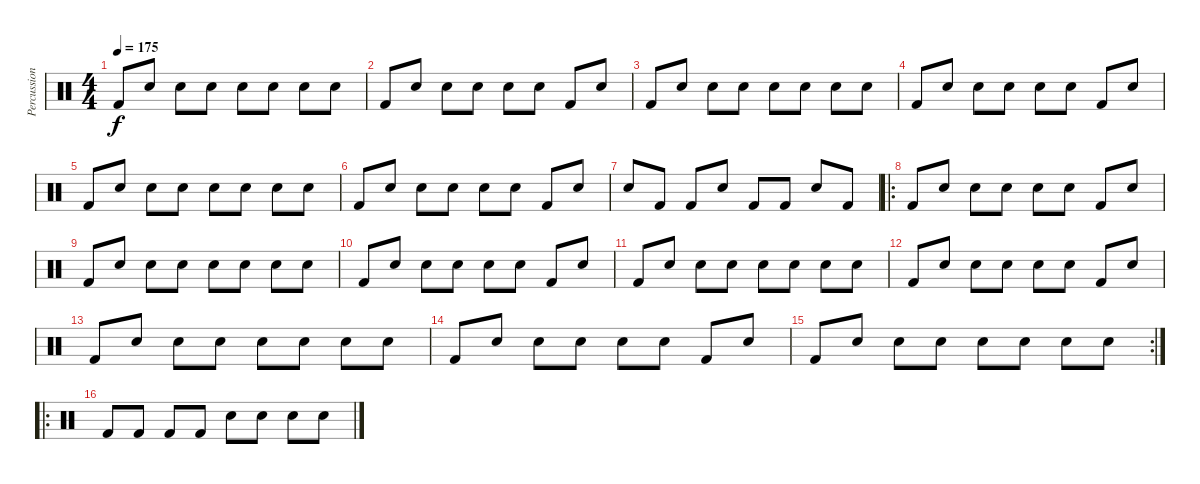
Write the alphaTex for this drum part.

\track ("Percussion" "Percussion") {instrument percussion}
\staff {score}
\articulation defaults
\ts (4 4)
\tempo 175
\clef neutral
\ks c "Kick (hit) 2".8{dy f} "Snare (hit)".8 "Snare (hit)".8 "Snare (hit)".8 "Electric Snare (hit)".8 "Snare (hit)".8 "Snare (hit)".8 "Snare (hit)".8
|
"Kick (hit) 2".8 "Snare (hit)".8 "Snare (hit)".8 "Snare (hit)".8 "Electric Snare (hit)".8 "Snare (hit)".8 "Kick (hit) 2".8 "Electric Snare (hit)".8 |
"Kick (hit) 2".8 "Snare (hit)".8 "Snare (hit)".8 "Snare (hit)".8 "Electric Snare (hit)".8 "Snare (hit)".8 "Snare (hit)".8 "Snare (hit)".8 |
"Kick (hit) 2".8 "Snare (hit)".8 "Snare (hit)".8 "Snare (hit)".8 "Electric Snare (hit)".8 "Snare (hit)".8 "Kick (hit) 2".8 "Electric Snare (hit)".8 |
"Kick (hit) 2".8 "Snare (hit)".8 "Snare (hit)".8 "Snare (hit)".8 "Electric Snare (hit)".8 "Snare (hit)".8 "Snare (hit)".8 "Snare (hit)".8 |
"Kick (hit) 2".8 "Snare (hit)".8 "Snare (hit)".8 "Snare (hit)".8 "Electric Snare (hit)".8 "Snare (hit)".8 "Kick (hit) 2".8 "Electric Snare (hit)".8 |
"Electric Snare (hit)".8 "Kick (hit) 2".8 "Kick (hit) 2".8 "Electric Snare (hit)".8 "Kick (hit) 2".8 "Kick (hit) 2".8 "Electric Snare (hit)".8 "Kick (hit) 2".8 |
\ro "Kick (hit) 2".8 "Snare (hit)".8 "Snare (hit)".8 "Snare (hit)".8 "Electric Snare (hit)".8 "Snare (hit)".8 "Kick (hit) 2".8 "Electric Snare (hit)".8
|
"Kick (hit) 2".8 "Snare (hit)".8 "Snare (hit)".8 "Snare (hit)".8 "Electric Snare (hit)".8 "Snare (hit)".8 "Snare (hit)".8 "Snare (hit)".8 |
"Kick (hit) 2".8 "Snare (hit)".8 "Snare (hit)".8 "Snare (hit)".8 "Electric Snare (hit)".8 "Snare (hit)".8 "Kick (hit) 2".8 "Electric Snare (hit)".8 |
"Kick (hit) 2".8 "Snare (hit)".8 "Snare (hit)".8 "Snare (hit)".8 "Electric Snare (hit)".8 "Snare (hit)".8 "Snare (hit)".8 "Snare (hit)".8 |
"Kick (hit) 2".8 "Snare (hit)".8 "Snare (hit)".8 "Snare (hit)".8 "Electric Snare (hit)".8 "Snare (hit)".8 "Kick (hit) 2".8 "Electric Snare (hit)".8 |
"Kick (hit) 2".8 "Snare (hit)".8 "Snare (hit)".8 "Snare (hit)".8 "Electric Snare (hit)".8 "Snare (hit)".8 "Snare (hit)".8 "Snare (hit)".8 |
"Kick (hit) 2".8 "Snare (hit)".8 "Snare (hit)".8 "Snare (hit)".8 "Electric Snare (hit)".8 "Snare (hit)".8 "Kick (hit) 2".8 "Electric Snare (hit)".8 |
\rc 2 "Kick (hit) 2".8 "Snare (hit)".8 "Snare (hit)".8 "Snare (hit)".8 "Electric Snare (hit)".8 "Snare (hit)".8 "Snare (hit)".8 "Snare (hit)".8
|
\ro "Kick (hit) 2".8 "Kick (hit) 2".8 "Kick (hit) 2".8 "Kick (hit) 2".8 "Electric Snare (hit)".8 "Electric Snare (hit)".8 "Electric Snare (hit)".8 "Snare (hit)".8
